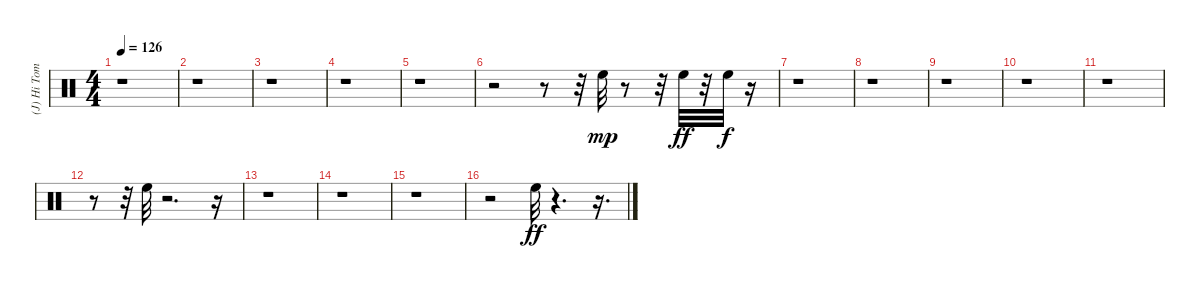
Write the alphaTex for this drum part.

\track ("(J) Hi Tom" "(J) Hi Tom") {instrument percussion}
\staff {score}
\articulation defaults
\ts (4 4)
\tempo 126
\clef neutral
\ks c
r.1{dy mp} |
r.1 |
r.1 |
r.1 |
r.1 |
r.2 r.8 r.32 "High Floor Tom (hit)".32 r.8 r.32 "High Floor Tom (hit)".32{dy ff} r.32 "High Floor Tom (hit)".32{dy f} r.16 |
r.1 |
r.1 |
r.1 |
r.1 |
r.1 |
r.8 r.32 "High Floor Tom (hit)".32 r.2{d} r.16 |
r.1 |
r.1 |
r.1 |
r.2 "High Floor Tom (hit)".32{dy ff} r.4{d} r.16{d}
